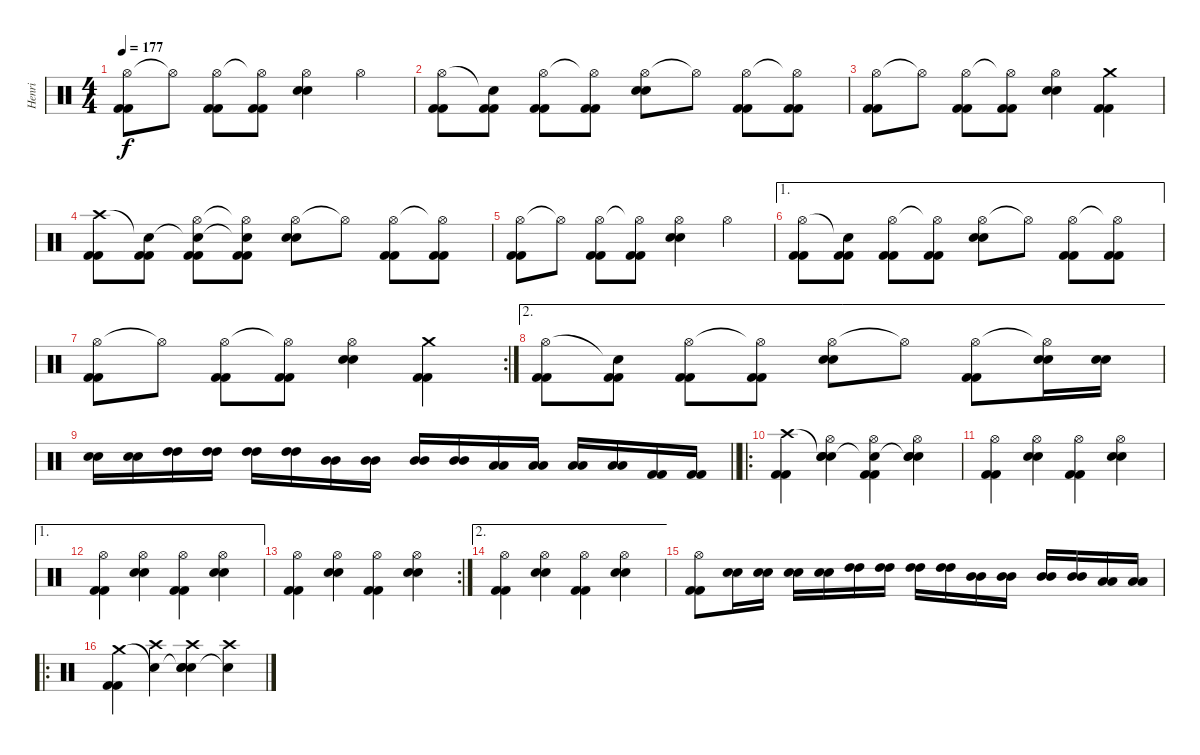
\track ("Henri" "Henri") {instrument percussion}
\staff {score}
\articulation defaults
\ts (4 4)
\tempo 177
\clef neutral
\ks c
("Hi-Hat (open)" "Kick (hit) 2" "Kick (hit) 2").8{dy f} "Hi-Hat (open)"{t}.8 ("Hi-Hat (open)" "Kick (hit) 2" "Kick (hit) 2").8 ("Hi-Hat (open)"{t} "Kick (hit) 2" "Kick (hit) 2").8 ("Hi-Hat (open)" "Snare (hit) 2" "Snare (hit) 2").4 "Hi-Hat (open)".4 |
("Hi-Hat (open)" "Kick (hit) 2" "Kick (hit) 2").8 ("Snare (hit)"{t} "Kick (hit) 2" "Kick (hit) 2").8 ("Hi-Hat (open)" "Kick (hit) 2" "Kick (hit) 2").8 ("Hi-Hat (open)"{t} "Kick (hit) 2" "Kick (hit) 2").8 ("Hi-Hat (open)" "Snare (hit) 2" "Snare (hit) 2").8 "Hi-Hat (open)"{t}.8 ("Hi-Hat (open)" "Kick (hit) 2" "Kick (hit) 2").8 ("Hi-Hat (open)"{t} "Kick (hit) 2" "Kick (hit) 2").8 |
("Hi-Hat (open)" "Kick (hit) 2" "Kick (hit) 2").8 "Hi-Hat (open)"{t}.8 ("Hi-Hat (open)" "Kick (hit) 2" "Kick (hit) 2").8 ("Hi-Hat (open)"{t} "Kick (hit) 2" "Kick (hit) 2").8 ("Hi-Hat (open)" "Snare (hit) 2" "Snare (hit) 2").4 ("Crash medium (hit)" "Kick (hit) 2" "Kick (hit) 2").4 |
("Crash high (hit)" "Kick (hit) 2" "Kick (hit) 2").8 ("Snare (hit)"{t} "Kick (hit) 2" "Kick (hit) 2").8 ("Snare (hit)"{t} "Hi-Hat (open)" "Kick (hit) 2" "Kick (hit) 2").8 ("Snare (hit)"{t} "Hi-Hat (open)"{t} "Kick (hit) 2" "Kick (hit) 2").8 ("Hi-Hat (open)" "Snare (hit) 2" "Snare (hit) 2").8 "Hi-Hat (open)"{t}.8 ("Hi-Hat (open)" "Kick (hit) 2" "Kick (hit) 2").8 ("Hi-Hat (open)"{t} "Kick (hit) 2" "Kick (hit) 2").8 |
("Hi-Hat (open)" "Kick (hit) 2" "Kick (hit) 2").8 "Hi-Hat (open)"{t}.8 ("Hi-Hat (open)" "Kick (hit) 2" "Kick (hit) 2").8 ("Hi-Hat (open)"{t} "Kick (hit) 2" "Kick (hit) 2").8 ("Hi-Hat (open)" "Snare (hit) 2" "Snare (hit) 2").4 "Hi-Hat (open)".4 |
\ae 1
("Hi-Hat (open)" "Kick (hit) 2" "Kick (hit) 2").8 ("Snare (hit)"{t} "Kick (hit) 2" "Kick (hit) 2").8 ("Hi-Hat (open)" "Kick (hit) 2" "Kick (hit) 2").8 ("Hi-Hat (open)"{t} "Kick (hit) 2" "Kick (hit) 2").8 ("Hi-Hat (open)" "Snare (hit) 2" "Snare (hit) 2").8 "Hi-Hat (open)"{t}.8 ("Hi-Hat (open)" "Kick (hit) 2" "Kick (hit) 2").8 ("Hi-Hat (open)"{t} "Kick (hit) 2" "Kick (hit) 2").8 |
\rc 2
("Hi-Hat (open)" "Kick (hit) 2" "Kick (hit) 2").8 "Hi-Hat (open)"{t}.8 ("Hi-Hat (open)" "Kick (hit) 2" "Kick (hit) 2").8 ("Hi-Hat (open)"{t} "Kick (hit) 2" "Kick (hit) 2").8 ("Hi-Hat (open)" "Snare (hit) 2" "Snare (hit) 2").4 ("Crash medium (hit)" "Kick (hit) 2" "Kick (hit) 2").4 |
\ae 2
("Hi-Hat (open)" "Kick (hit) 2" "Kick (hit) 2").8 ("Snare (hit)"{t} "Kick (hit) 2" "Kick (hit) 2").8 ("Hi-Hat (open)" "Kick (hit) 2" "Kick (hit) 2").8 ("Hi-Hat (open)"{t} "Kick (hit) 2" "Kick (hit) 2").8 ("Hi-Hat (open)" "Snare (hit) 2" "Snare (hit) 2").8 "Hi-Hat (open)"{t}.8 ("Hi-Hat (open)" "Kick (hit) 2" "Kick (hit) 2").8 ("Hi-Hat (open)"{t} "Snare (hit) 2" "Snare (hit) 2").16 ("Snare (hit) 2" "Snare (hit) 2").16 |
\barLineRight lightlight
("Snare (hit) 2" "Snare (hit) 2").16 ("Snare (hit) 2" "Snare (hit) 2").16 ("High Tom (hit)" "High Tom (hit)").16 ("High Tom (hit)" "High Tom (hit)").16 ("High Tom (hit)" "High Tom (hit)").16 ("High Tom (hit)" "High Tom (hit)").16 ("Mid Tom (hit)" "Mid Tom (hit)").16 ("Mid Tom (hit)" "Mid Tom (hit)").16 ("Mid Tom (hit)" "Mid Tom (hit)").16 ("Mid Tom (hit)" "Mid Tom (hit)").16 ("Low Tom (hit)" "Low Tom (hit)").16 ("Low Tom (hit)" "Low Tom (hit)").16 ("Low Tom (hit)" "Low Tom (hit)").16 ("Low Tom (hit)" "Low Tom (hit)").16 ("Kick (hit) 2" "Kick (hit) 2").16 ("Kick (hit) 2" "Kick (hit) 2").16 |
\ro
("Crash high (hit)" "Kick (hit) 2" "Kick (hit) 2").4 ("Snare (hit)"{t} "Hi-Hat (open)" "Snare (hit) 2" "Snare (hit) 2").4 ("Snare (hit)"{t} "Hi-Hat (open)" "Kick (hit) 2" "Kick (hit) 2").4 ("Snare (hit)"{t} "Hi-Hat (open)" "Snare (hit) 2" "Snare (hit) 2").4 |
("Hi-Hat (open)" "Kick (hit) 2" "Kick (hit) 2").4 ("Hi-Hat (open)" "Snare (hit) 2" "Snare (hit) 2").4 ("Hi-Hat (open)" "Kick (hit) 2" "Kick (hit) 2").4 ("Hi-Hat (open)" "Snare (hit) 2" "Snare (hit) 2").4 |
\ae 1
("Hi-Hat (open)" "Kick (hit) 2" "Kick (hit) 2").4 ("Hi-Hat (open)" "Snare (hit) 2" "Snare (hit) 2").4 ("Hi-Hat (open)" "Kick (hit) 2" "Kick (hit) 2").4 ("Hi-Hat (open)" "Snare (hit) 2" "Snare (hit) 2").4 |
\rc 2
("Hi-Hat (open)" "Kick (hit) 2" "Kick (hit) 2").4 ("Hi-Hat (open)" "Snare (hit) 2" "Snare (hit) 2").4 ("Hi-Hat (open)" "Kick (hit) 2" "Kick (hit) 2").4 ("Hi-Hat (open)" "Snare (hit) 2" "Snare (hit) 2").4 |
\ae 2
("Hi-Hat (open)" "Kick (hit) 2" "Kick (hit) 2").4 ("Hi-Hat (open)" "Snare (hit) 2" "Snare (hit) 2").4 ("Hi-Hat (open)" "Kick (hit) 2" "Kick (hit) 2").4 ("Hi-Hat (open)" "Snare (hit) 2" "Snare (hit) 2").4 |
("Hi-Hat (open)" "Kick (hit) 2" "Kick (hit) 2").8 ("Snare (hit) 2" "Snare (hit) 2").16 ("Snare (hit) 2" "Snare (hit) 2").16 ("Snare (hit) 2" "Snare (hit) 2").16 ("Snare (hit) 2" "Snare (hit) 2").16 ("High Tom (hit)" "High Tom (hit)").16 ("High Tom (hit)" "High Tom (hit)").16 ("High Tom (hit)" "High Tom (hit)").16 ("High Tom (hit)" "High Tom (hit)").16 ("Mid Tom (hit)" "Mid Tom (hit)").16 ("Mid Tom (hit)" "Mid Tom (hit)").16 ("Mid Tom (hit)" "Mid Tom (hit)").16 ("Mid Tom (hit)" "Mid Tom (hit)").16 ("Low Tom (hit)" "Low Tom (hit)").16 ("Low Tom (hit)" "Low Tom (hit)").16 |
\ro
("Crash medium (hit)" "Kick (hit) 2" "Kick (hit) 2").4 ("Snare (hit)"{t} "Crash high (hit)").4 ("Snare (hit)"{t} "Crash high (hit)" "Snare (hit) 2" "Snare (hit) 2").4 ("Snare (hit)"{t} "Crash high (hit)").4
